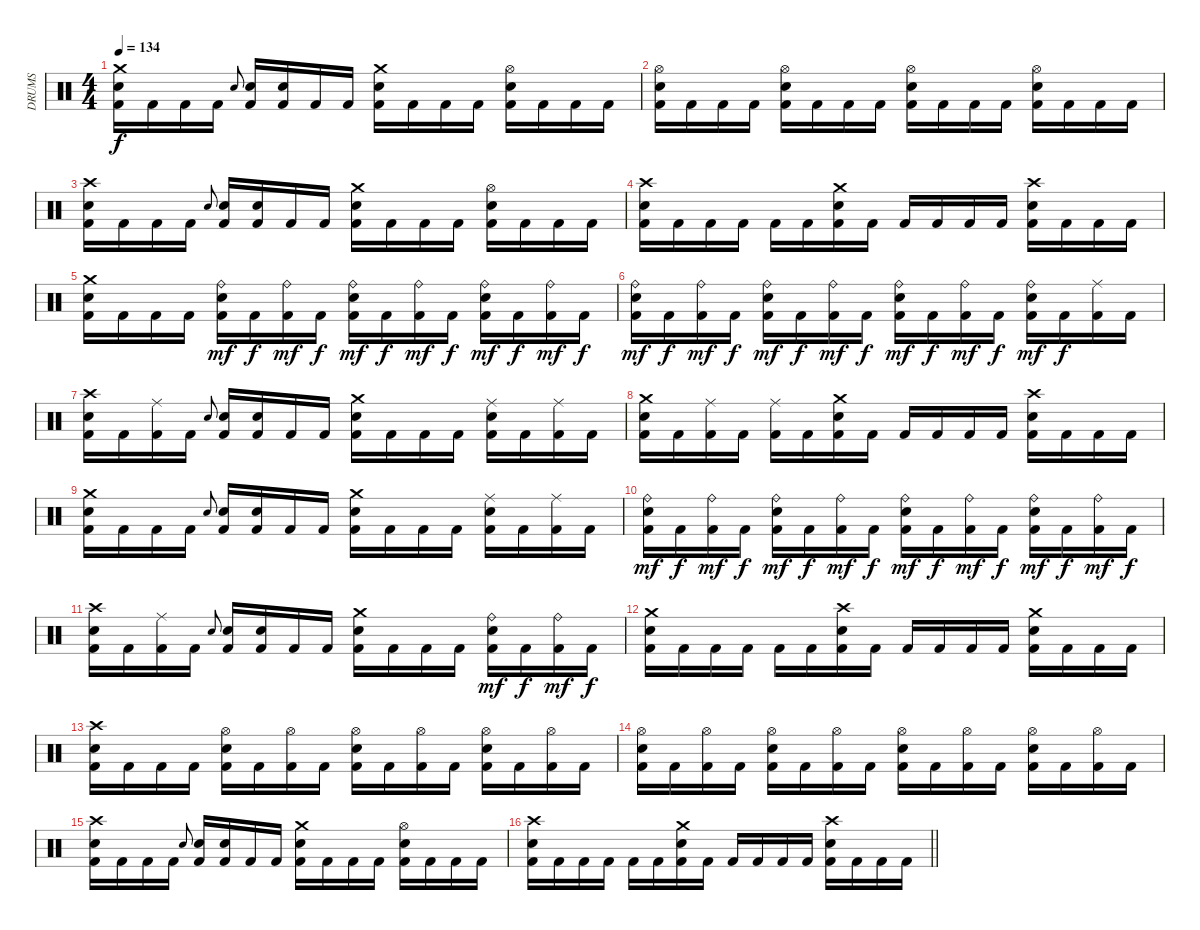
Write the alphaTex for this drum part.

\track ("DRUMS" "DRUMS") {instrument percussion}
\staff {score}
\articulation defaults
\ts (4 4)
\tempo 134
\clef neutral
\ks c
("Crash medium (hit)" "Snare (hit) 2" "Kick (hit) 2").16{dy f} "Kick (hit) 2".16 "Kick (hit) 2".16 "Kick (hit) 2".16 "Snare (hit) 2".8{gr onbeat} ("Snare (hit) 2" "Kick (hit) 2").16 ("Snare (hit) 2" "Kick (hit) 2").16 "Kick (hit) 2".16 "Kick (hit) 2".16 ("Crash medium (hit)" "Snare (hit) 2" "Kick (hit) 2").16 "Kick (hit) 2".16 "Kick (hit) 2".16 "Kick (hit) 2".16 ("Hi-Hat (open)" "Snare (hit) 2" "Kick (hit) 2").16 "Kick (hit) 2".16 "Kick (hit) 2".16 "Kick (hit) 2".16 |
("Hi-Hat (open)" "Snare (hit) 2" "Kick (hit) 2").16 "Kick (hit) 2".16 "Kick (hit) 2".16 "Kick (hit) 2".16 ("Hi-Hat (open)" "Snare (hit) 2" "Kick (hit) 2").16 "Kick (hit) 2".16 "Kick (hit) 2".16 "Kick (hit) 2".16 ("Hi-Hat (open)" "Snare (hit) 2" "Kick (hit) 2").16 "Kick (hit) 2".16 "Kick (hit) 2".16 "Kick (hit) 2".16 ("Hi-Hat (open)" "Snare (hit) 2" "Kick (hit) 2").16 "Kick (hit) 2".16 "Kick (hit) 2".16 "Kick (hit) 2".16 |
("Crash high (hit)" "Snare (hit) 2" "Kick (hit) 2").16 "Kick (hit) 2".16 "Kick (hit) 2".16 "Kick (hit) 2".16 "Snare (hit) 2".8{gr onbeat} ("Snare (hit) 2" "Kick (hit) 2").16 ("Snare (hit) 2" "Kick (hit) 2").16 "Kick (hit) 2".16 "Kick (hit) 2".16 ("Crash medium (hit)" "Snare (hit) 2" "Kick (hit) 2").16 "Kick (hit) 2".16 "Kick (hit) 2".16 "Kick (hit) 2".16 ("Hi-Hat (open)" "Snare (hit) 2" "Kick (hit) 2").16 "Kick (hit) 2".16 "Kick (hit) 2".16 "Kick (hit) 2".16 |
("Crash high (hit)" "Snare (hit) 2" "Kick (hit) 2").16 "Kick (hit) 2".16 "Kick (hit) 2".16 "Kick (hit) 2".16 "Kick (hit) 2".16 "Kick (hit) 2".16 ("Crash medium (hit)" "Snare (hit) 2" "Kick (hit) 2").16 "Kick (hit) 2".16 "Kick (hit) 2".16 "Kick (hit) 2".16 "Kick (hit) 2".16 "Kick (hit) 2".16 ("Crash high (hit)" "Snare (hit) 2" "Kick (hit) 2").16 "Kick (hit) 2".16 "Kick (hit) 2".16 "Kick (hit) 2".16 |
("Crash medium (hit)" "Snare (hit) 2" "Kick (hit) 2").16 "Kick (hit) 2".16 "Kick (hit) 2".16 "Kick (hit) 2".16 ("Ride (bell)" "Snare (hit) 2" "Kick (hit) 2").16{dy mf} "Kick (hit) 2".16{dy f} ("Ride (bell)" "Kick (hit) 2").16{dy mf} "Kick (hit) 2".16{dy f} ("Ride (bell)" "Snare (hit) 2" "Kick (hit) 2").16{dy mf} "Kick (hit) 2".16{dy f} ("Ride (bell)" "Kick (hit) 2").16{dy mf} "Kick (hit) 2".16{dy f} ("Ride (bell)" "Snare (hit) 2" "Kick (hit) 2").16{dy mf} "Kick (hit) 2".16{dy f} ("Ride (bell)" "Kick (hit) 2").16{dy mf} "Kick (hit) 2".16{dy f} |
("Ride (bell)" "Snare (hit) 2" "Kick (hit) 2").16{dy mf} "Kick (hit) 2".16{dy f} ("Ride (bell)" "Kick (hit) 2").16{dy mf} "Kick (hit) 2".16{dy f} ("Ride (bell)" "Snare (hit) 2" "Kick (hit) 2").16{dy mf} "Kick (hit) 2".16{dy f} ("Ride (bell)" "Kick (hit) 2").16{dy mf} "Kick (hit) 2".16{dy f} ("Ride (bell)" "Snare (hit) 2" "Kick (hit) 2").16{dy mf} "Kick (hit) 2".16{dy f} ("Ride (bell)" "Kick (hit) 2").16{dy mf} "Kick (hit) 2".16{dy f} ("Ride (bell)" "Snare (hit) 2" "Kick (hit) 2").16{dy mf} "Kick (hit) 2".16{dy f} ("Ride (middle)" "Kick (hit) 2").16 "Kick (hit) 2".16 |
("Crash high (hit)" "Snare (hit) 2" "Kick (hit) 2").16 "Kick (hit) 2".16 ("Ride (middle)" "Kick (hit) 2").16 "Kick (hit) 2".16 "Snare (hit) 2".8{gr onbeat} ("Snare (hit) 2" "Kick (hit) 2").16 ("Snare (hit) 2" "Kick (hit) 2").16 "Kick (hit) 2".16 "Kick (hit) 2".16 ("Crash medium (hit)" "Snare (hit) 2" "Kick (hit) 2").16 "Kick (hit) 2".16 "Kick (hit) 2".16 "Kick (hit) 2".16 ("Ride (middle)" "Snare (hit) 2" "Kick (hit) 2").16 "Kick (hit) 2".16 ("Ride (middle)" "Kick (hit) 2").16 "Kick (hit) 2".16 |
("Crash medium (hit)" "Snare (hit) 2" "Kick (hit) 2").16 "Kick (hit) 2".16 ("Ride (middle)" "Kick (hit) 2").16 "Kick (hit) 2".16 ("Ride (middle)" "Kick (hit) 2").16 "Kick (hit) 2".16 ("Crash medium (hit)" "Snare (hit) 2" "Kick (hit) 2").16 "Kick (hit) 2".16 "Kick (hit) 2".16 "Kick (hit) 2".16 "Kick (hit) 2".16 "Kick (hit) 2".16 ("Crash high (hit)" "Snare (hit) 2" "Kick (hit) 2").16 "Kick (hit) 2".16 "Kick (hit) 2".16 "Kick (hit) 2".16 |
("Crash medium (hit)" "Snare (hit) 2" "Kick (hit) 2").16 "Kick (hit) 2".16 "Kick (hit) 2".16 "Kick (hit) 2".16 "Snare (hit) 2".8{gr onbeat} ("Snare (hit) 2" "Kick (hit) 2").16 ("Snare (hit) 2" "Kick (hit) 2").16 "Kick (hit) 2".16 "Kick (hit) 2".16 ("Crash medium (hit)" "Snare (hit) 2" "Kick (hit) 2").16 "Kick (hit) 2".16 "Kick (hit) 2".16 "Kick (hit) 2".16 ("Ride (middle)" "Snare (hit) 2" "Kick (hit) 2").16 "Kick (hit) 2".16 ("Ride (middle)" "Kick (hit) 2").16 "Kick (hit) 2".16 |
("Ride (bell)" "Snare (hit) 2" "Kick (hit) 2").16{dy mf} "Kick (hit) 2".16{dy f} ("Ride (bell)" "Kick (hit) 2").16{dy mf} "Kick (hit) 2".16{dy f} ("Ride (bell)" "Snare (hit) 2" "Kick (hit) 2").16{dy mf} "Kick (hit) 2".16{dy f} ("Ride (bell)" "Kick (hit) 2").16{dy mf} "Kick (hit) 2".16{dy f} ("Ride (bell)" "Snare (hit) 2" "Kick (hit) 2").16{dy mf} "Kick (hit) 2".16{dy f} ("Ride (bell)" "Kick (hit) 2").16{dy mf} "Kick (hit) 2".16{dy f} ("Ride (bell)" "Snare (hit) 2" "Kick (hit) 2").16{dy mf} "Kick (hit) 2".16{dy f} ("Ride (bell)" "Kick (hit) 2").16{dy mf} "Kick (hit) 2".16{dy f} |
("Crash high (hit)" "Snare (hit) 2" "Kick (hit) 2").16 "Kick (hit) 2".16 ("Ride (middle)" "Kick (hit) 2").16 "Kick (hit) 2".16 "Snare (hit) 2".8{gr onbeat} ("Snare (hit) 2" "Kick (hit) 2").16 ("Snare (hit) 2" "Kick (hit) 2").16 "Kick (hit) 2".16 "Kick (hit) 2".16 ("Crash medium (hit)" "Snare (hit) 2" "Kick (hit) 2").16 "Kick (hit) 2".16 "Kick (hit) 2".16 "Kick (hit) 2".16 ("Ride (bell)" "Snare (hit) 2" "Kick (hit) 2").16{dy mf} "Kick (hit) 2".16{dy f} ("Ride (bell)" "Kick (hit) 2").16{dy mf} "Kick (hit) 2".16{dy f} |
("Crash medium (hit)" "Snare (hit) 2" "Kick (hit) 2").16 "Kick (hit) 2".16 "Kick (hit) 2".16 "Kick (hit) 2".16 "Kick (hit) 2".16 "Kick (hit) 2".16 ("Crash high (hit)" "Snare (hit) 2" "Kick (hit) 2").16 "Kick (hit) 2".16 "Kick (hit) 2".16 "Kick (hit) 2".16 "Kick (hit) 2".16 "Kick (hit) 2".16 ("Crash medium (hit)" "Snare (hit) 2" "Kick (hit) 2").16 "Kick (hit) 2".16 "Kick (hit) 2".16 "Kick (hit) 2".16 |
("Crash high (hit)" "Snare (hit) 2" "Kick (hit) 2").16 "Kick (hit) 2".16 "Kick (hit) 2".16 "Kick (hit) 2".16 ("Hi-Hat (open)" "Snare (hit) 2" "Kick (hit) 2").16 "Kick (hit) 2".16 ("Hi-Hat (open)" "Kick (hit) 2").16 "Kick (hit) 2".16 ("Hi-Hat (open)" "Snare (hit) 2" "Kick (hit) 2").16 "Kick (hit) 2".16 ("Hi-Hat (open)" "Kick (hit) 2").16 "Kick (hit) 2".16 ("Hi-Hat (open)" "Snare (hit) 2" "Kick (hit) 2").16 "Kick (hit) 2".16 ("Hi-Hat (open)" "Kick (hit) 2").16 "Kick (hit) 2".16 |
("Hi-Hat (open)" "Snare (hit) 2" "Kick (hit) 2").16 "Kick (hit) 2".16 ("Hi-Hat (open)" "Kick (hit) 2").16 "Kick (hit) 2".16 ("Hi-Hat (open)" "Snare (hit) 2" "Kick (hit) 2").16 "Kick (hit) 2".16 ("Hi-Hat (open)" "Kick (hit) 2").16 "Kick (hit) 2".16 ("Hi-Hat (open)" "Snare (hit) 2" "Kick (hit) 2").16 "Kick (hit) 2".16 ("Hi-Hat (open)" "Kick (hit) 2").16 "Kick (hit) 2".16 ("Hi-Hat (open)" "Snare (hit) 2" "Kick (hit) 2").16 "Kick (hit) 2".16 ("Hi-Hat (open)" "Kick (hit) 2").16 "Kick (hit) 2".16 |
("Crash high (hit)" "Snare (hit) 2" "Kick (hit) 2").16 "Kick (hit) 2".16 "Kick (hit) 2".16 "Kick (hit) 2".16 "Snare (hit) 2".8{gr onbeat} ("Snare (hit) 2" "Kick (hit) 2").16 ("Snare (hit) 2" "Kick (hit) 2").16 "Kick (hit) 2".16 "Kick (hit) 2".16 ("Crash medium (hit)" "Snare (hit) 2" "Kick (hit) 2").16 "Kick (hit) 2".16 "Kick (hit) 2".16 "Kick (hit) 2".16 ("Hi-Hat (open)" "Snare (hit) 2" "Kick (hit) 2").16 "Kick (hit) 2".16 "Kick (hit) 2".16 "Kick (hit) 2".16 |
\barLineRight lightlight
("Crash high (hit)" "Snare (hit) 2" "Kick (hit) 2").16 "Kick (hit) 2".16 "Kick (hit) 2".16 "Kick (hit) 2".16 "Kick (hit) 2".16 "Kick (hit) 2".16 ("Crash medium (hit)" "Snare (hit) 2" "Kick (hit) 2").16 "Kick (hit) 2".16 "Kick (hit) 2".16 "Kick (hit) 2".16 "Kick (hit) 2".16 "Kick (hit) 2".16 ("Crash high (hit)" "Snare (hit) 2" "Kick (hit) 2").16 "Kick (hit) 2".16 "Kick (hit) 2".16 "Kick (hit) 2".16
